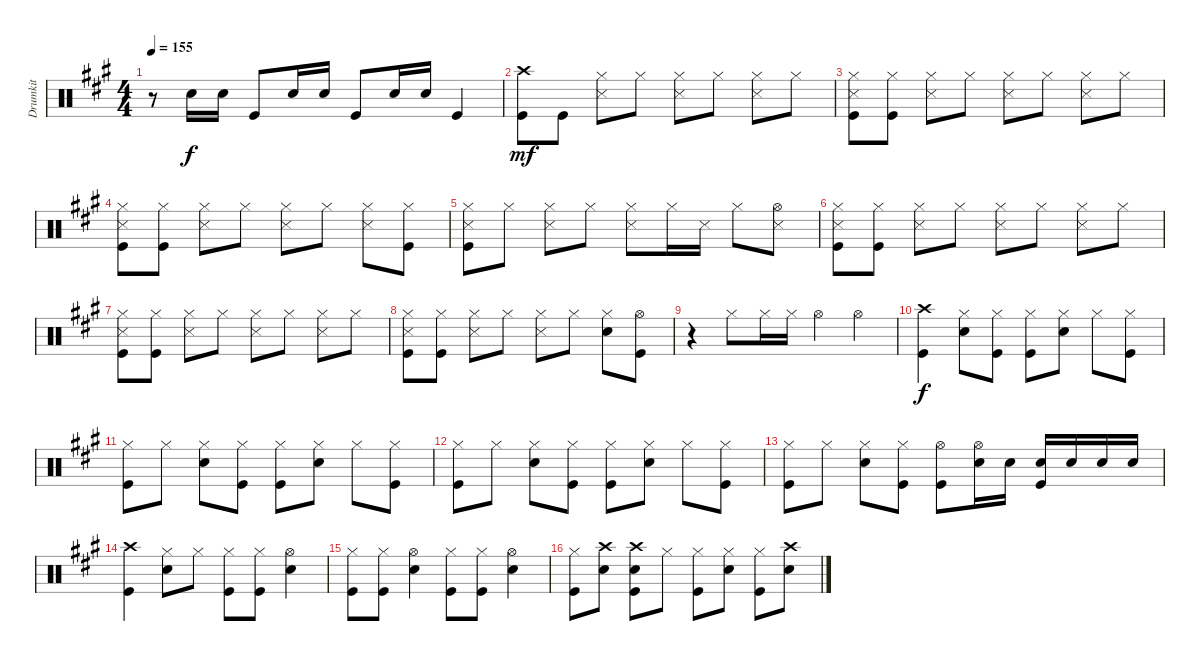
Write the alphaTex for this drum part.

\track ("Drumkit" "Drumkit") {instrument percussion}
\staff {score}
\articulation defaults
\ts (4 4)
\tempo 155
\clef neutral
\ks a
r.8{dy f} "Snare (hit) 2".16 "Snare (hit) 2".16 "Kick (hit)".8 "Snare (hit) 2".16 "Snare (hit) 2".16 "Kick (hit)".8 "Snare (hit) 2".16 "Snare (hit) 2".16 "Kick (hit)".4 |
("Crash high (hit)" "Kick (hit)").8{dy mf} "Kick (hit)".8 ("Hi-Hat (closed)" "Snare (side stick) 3").8 "Hi-Hat (closed)".8 ("Hi-Hat (closed)" "Snare (side stick) 3").8 "Hi-Hat (closed)".8 ("Hi-Hat (closed)" "Snare (side stick) 3").8 "Hi-Hat (closed)".8 |
("Hi-Hat (closed)" "Snare (side stick) 3" "Kick (hit)").8 ("Hi-Hat (closed)" "Kick (hit)").8 ("Hi-Hat (closed)" "Snare (side stick) 3").8 "Hi-Hat (closed)".8 ("Hi-Hat (closed)" "Snare (side stick) 3").8 "Hi-Hat (closed)".8 ("Hi-Hat (closed)" "Snare (side stick) 3").8 "Hi-Hat (closed)".8 |
("Hi-Hat (closed)" "Snare (side stick) 3" "Kick (hit)").8 ("Hi-Hat (closed)" "Kick (hit)").8 ("Hi-Hat (closed)" "Snare (side stick) 3").8 "Hi-Hat (closed)".8 ("Hi-Hat (closed)" "Snare (side stick) 3").8 "Hi-Hat (closed)".8 ("Hi-Hat (closed)" "Snare (side stick) 3").8 ("Hi-Hat (closed)" "Kick (hit)").8 |
("Hi-Hat (closed)" "Snare (side stick) 3" "Kick (hit)").8 "Hi-Hat (closed)".8 ("Hi-Hat (closed)" "Snare (side stick) 3").8 "Hi-Hat (closed)".8 ("Hi-Hat (closed)" "Snare (side stick) 3").8 "Hi-Hat (closed)".16 "Snare (side stick) 3".16 "Hi-Hat (closed)".8 ("Hi-Hat (open)" "Snare (side stick) 3").8 |
("Hi-Hat (closed)" "Snare (side stick) 3" "Kick (hit)").8 ("Hi-Hat (closed)" "Kick (hit)").8 ("Hi-Hat (closed)" "Snare (side stick) 3").8 "Hi-Hat (closed)".8 ("Hi-Hat (closed)" "Snare (side stick) 3").8 "Hi-Hat (closed)".8 ("Hi-Hat (closed)" "Snare (side stick) 3").8 "Hi-Hat (closed)".8 |
("Hi-Hat (closed)" "Snare (side stick) 3" "Kick (hit)").8 ("Hi-Hat (closed)" "Kick (hit)").8 ("Hi-Hat (closed)" "Snare (side stick) 3").8 "Hi-Hat (closed)".8 ("Hi-Hat (closed)" "Snare (side stick) 3").8 "Hi-Hat (closed)".8 ("Hi-Hat (closed)" "Snare (side stick) 3").8 "Hi-Hat (closed)".8 |
("Hi-Hat (closed)" "Snare (side stick) 3" "Kick (hit)").8 ("Hi-Hat (closed)" "Kick (hit)").8 ("Hi-Hat (closed)" "Snare (side stick) 3").8 "Hi-Hat (closed)".8 ("Hi-Hat (closed)" "Snare (side stick) 3").8 "Hi-Hat (closed)".8 ("Hi-Hat (closed)" "Snare (hit) 2").8 ("Hi-Hat (open)" "Kick (hit)").8 |
r.4 "Hi-Hat (closed)".8 "Hi-Hat (closed)".16 "Hi-Hat (closed)".16 "Hi-Hat (open)".4 "Hi-Hat (open)".4 |
("Crash high (hit)" "Kick (hit)").4{dy f} ("Hi-Hat (closed)" "Snare (hit) 2").8 ("Hi-Hat (closed)" "Kick (hit)").8 ("Hi-Hat (closed)" "Kick (hit)").8 ("Hi-Hat (closed)" "Snare (hit) 2").8 "Hi-Hat (closed)".8 ("Hi-Hat (closed)" "Kick (hit)").8 |
("Hi-Hat (closed)" "Kick (hit)").8 "Hi-Hat (closed)".8 ("Hi-Hat (closed)" "Snare (hit) 2").8 ("Hi-Hat (closed)" "Kick (hit)").8 ("Hi-Hat (closed)" "Kick (hit)").8 ("Hi-Hat (closed)" "Snare (hit) 2").8 "Hi-Hat (closed)".8 ("Hi-Hat (closed)" "Kick (hit)").8 |
("Hi-Hat (closed)" "Kick (hit)").8 "Hi-Hat (closed)".8 ("Hi-Hat (closed)" "Snare (hit) 2").8 ("Hi-Hat (closed)" "Kick (hit)").8 ("Hi-Hat (closed)" "Kick (hit)").8 ("Hi-Hat (closed)" "Snare (hit) 2").8 "Hi-Hat (closed)".8 ("Hi-Hat (closed)" "Kick (hit)").8 |
("Hi-Hat (closed)" "Kick (hit)").8 "Hi-Hat (closed)".8 ("Hi-Hat (closed)" "Snare (hit) 2").8 ("Hi-Hat (closed)" "Kick (hit)").8 ("Hi-Hat (open)" "Kick (hit)").8 ("Hi-Hat (open)" "Snare (hit) 2").16 "Snare (hit) 2".16 ("Snare (hit) 2" "Kick (hit)").16 "Snare (hit) 2".16 "Snare (hit) 2".16 "Snare (hit) 2".16 |
("Crash high (hit)" "Kick (hit)").4 ("Hi-Hat (closed)" "Snare (hit) 2").8 "Hi-Hat (closed)".8 ("Hi-Hat (closed)" "Kick (hit)").8 ("Hi-Hat (closed)" "Kick (hit)").8 ("Hi-Hat (open)" "Snare (hit) 2").4 |
("Hi-Hat (closed)" "Kick (hit)").8 ("Hi-Hat (closed)" "Kick (hit)").8 ("Hi-Hat (open)" "Snare (hit) 2").4 ("Hi-Hat (closed)" "Kick (hit)").8 ("Hi-Hat (closed)" "Kick (hit)").8 ("Hi-Hat (open)" "Snare (hit) 2").4 |
("Hi-Hat (closed)" "Kick (hit)").8 ("Crash high (hit)" "Snare (hit) 2").8 ("Crash high (hit)" "Snare (hit) 2" "Kick (hit)").8 "Hi-Hat (closed)".8 ("Hi-Hat (closed)" "Kick (hit)").8 ("Hi-Hat (closed)" "Snare (hit) 2").8 ("Hi-Hat (closed)" "Kick (hit)").8 ("Crash high (hit)" "Snare (hit) 2").8
